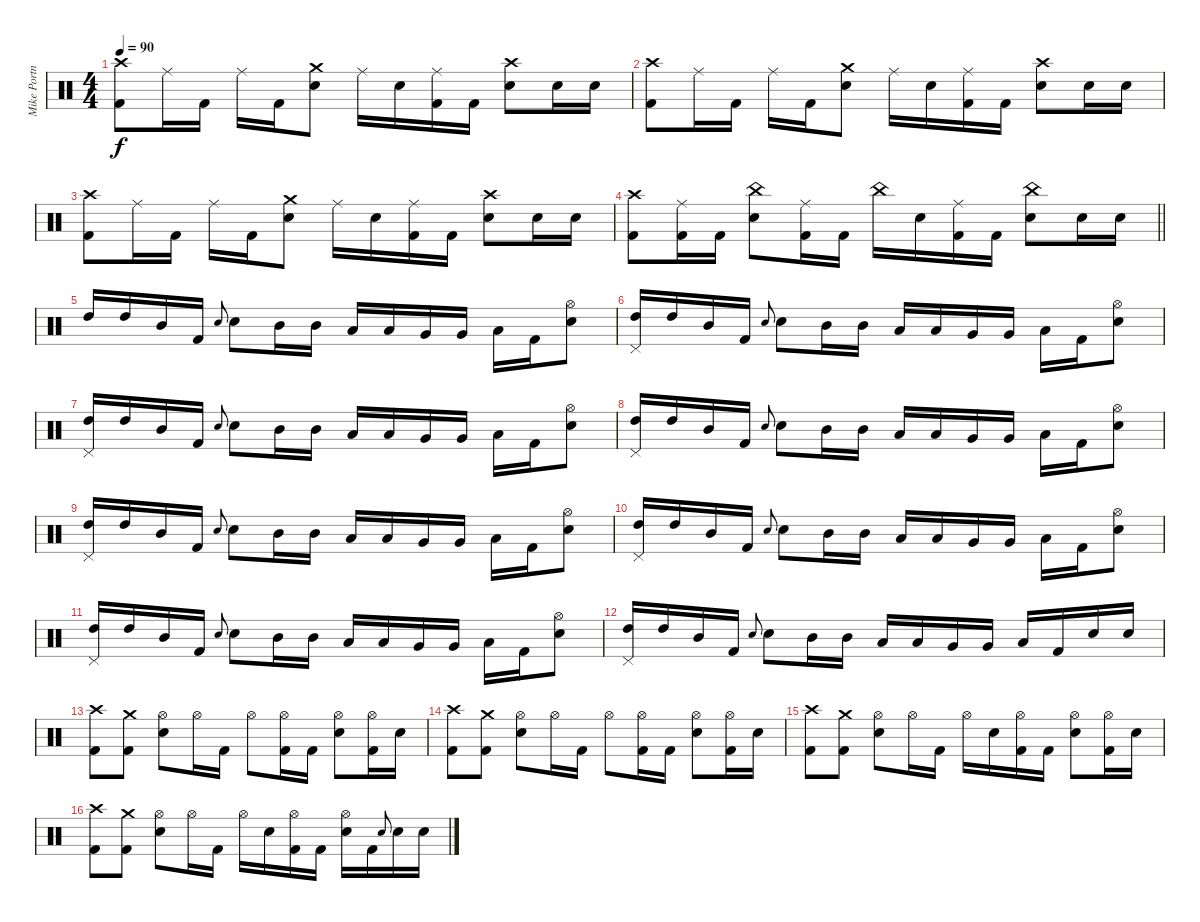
\track ("Mike Portnoy" "Mike Portn") {instrument percussion}
\staff {score}
\articulation defaults
\ts (4 4)
\tempo 90
\clef neutral
\ks c
("Crash high (hit)" "Kick (hit) 2").8{dy f} "Ride (middle)".16 "Kick (hit) 2".16 "Ride (middle)".16 "Kick (hit) 2".16 ("Crash medium (hit)" "Snare (hit) 2").8 "Ride (middle)".16 "Snare (hit) 2".16 ("Ride (middle)" "Kick (hit) 2").16 "Kick (hit) 2".16 ("Crash high (hit)" "Snare (hit) 2").8 "Snare (hit) 2".16 "Snare (hit) 2".16 |
("Crash high (hit)" "Kick (hit) 2").8 "Ride (middle)".16 "Kick (hit) 2".16 "Ride (middle)".16 "Kick (hit) 2".16 ("Crash medium (hit)" "Snare (hit) 2").8 "Ride (middle)".16 "Snare (hit) 2".16 ("Ride (middle)" "Kick (hit) 2").16 "Kick (hit) 2".16 ("Crash high (hit)" "Snare (hit) 2").8 "Snare (hit) 2".16 "Snare (hit) 2".16 |
("Crash high (hit)" "Kick (hit) 2").8 "Ride (middle)".16 "Kick (hit) 2".16 "Ride (middle)".16 "Kick (hit) 2".16 ("Crash medium (hit)" "Snare (hit) 2").8 "Ride (middle)".16 "Snare (hit) 2".16 ("Ride (middle)" "Kick (hit) 2").16 "Kick (hit) 2".16 ("Crash high (hit)" "Snare (hit) 2").8 "Snare (hit) 2".16 "Snare (hit) 2".16 |
\barLineRight lightlight
("Crash high (hit)" "Kick (hit) 2").8 ("Ride (middle)" "Kick (hit) 2").16 "Kick (hit) 2".16 ("China (hit)" "Snare (hit) 2").8 ("Ride (middle)" "Kick (hit) 2").16 "Kick (hit) 2".16 "China (hit)".16 "Snare (hit) 2".16 ("Ride (middle)" "Kick (hit) 2").16 "Kick (hit) 2".16 ("China (hit)" "Snare (hit) 2").8 "Snare (hit) 2".16 "Snare (hit) 2".16 |
"High Tom (hit)".16 "High Tom (hit)".16 "Mid Tom (hit)".16 "Kick (hit) 2".16 "Snare (hit) 2".8{gr onbeat} "Snare (hit) 2".8 "Mid Tom (hit)".16 "Mid Tom (hit)".16 "Low Tom (hit)".16 "Low Tom (hit)".16 "Very Low Tom (hit)".16 "Very Low Tom (hit)".16 "Low Floor Tom (hit)".16 "Kick (hit) 2".16 ("Hi-Hat (open)" "Snare (hit) 2").8 |
("Pedal Hi-Hat (hit)" "High Tom (hit)").16 "High Tom (hit)".16 "Mid Tom (hit)".16 "Kick (hit) 2".16 "Snare (hit) 2".8{gr onbeat} "Snare (hit) 2".8 "Mid Tom (hit)".16 "Mid Tom (hit)".16 "Low Tom (hit)".16 "Low Tom (hit)".16 "Very Low Tom (hit)".16 "Very Low Tom (hit)".16 "Low Floor Tom (hit)".16 "Kick (hit) 2".16 ("Hi-Hat (open)" "Snare (hit) 2").8 |
("Pedal Hi-Hat (hit)" "High Tom (hit)").16 "High Tom (hit)".16 "Mid Tom (hit)".16 "Kick (hit) 2".16 "Snare (hit) 2".8{gr onbeat} "Snare (hit) 2".8 "Mid Tom (hit)".16 "Mid Tom (hit)".16 "Low Tom (hit)".16 "Low Tom (hit)".16 "Very Low Tom (hit)".16 "Very Low Tom (hit)".16 "Low Floor Tom (hit)".16 "Kick (hit) 2".16 ("Hi-Hat (open)" "Snare (hit) 2").8 |
("Pedal Hi-Hat (hit)" "High Tom (hit)").16 "High Tom (hit)".16 "Mid Tom (hit)".16 "Kick (hit) 2".16 "Snare (hit) 2".8{gr onbeat} "Snare (hit) 2".8 "Mid Tom (hit)".16 "Mid Tom (hit)".16 "Low Tom (hit)".16 "Low Tom (hit)".16 "Very Low Tom (hit)".16 "Very Low Tom (hit)".16 "Low Floor Tom (hit)".16 "Kick (hit) 2".16 ("Hi-Hat (open)" "Snare (hit) 2").8 |
("Pedal Hi-Hat (hit)" "High Tom (hit)").16 "High Tom (hit)".16 "Mid Tom (hit)".16 "Kick (hit) 2".16 "Snare (hit) 2".8{gr onbeat} "Snare (hit) 2".8 "Mid Tom (hit)".16 "Mid Tom (hit)".16 "Low Tom (hit)".16 "Low Tom (hit)".16 "Very Low Tom (hit)".16 "Very Low Tom (hit)".16 "Low Floor Tom (hit)".16 "Kick (hit) 2".16 ("Hi-Hat (open)" "Snare (hit) 2").8 |
("Pedal Hi-Hat (hit)" "High Tom (hit)").16 "High Tom (hit)".16 "Mid Tom (hit)".16 "Kick (hit) 2".16 "Snare (hit) 2".8{gr onbeat} "Snare (hit) 2".8 "Mid Tom (hit)".16 "Mid Tom (hit)".16 "Low Tom (hit)".16 "Low Tom (hit)".16 "Very Low Tom (hit)".16 "Very Low Tom (hit)".16 "Low Floor Tom (hit)".16 "Kick (hit) 2".16 ("Hi-Hat (open)" "Snare (hit) 2").8 |
("Pedal Hi-Hat (hit)" "High Tom (hit)").16 "High Tom (hit)".16 "Mid Tom (hit)".16 "Kick (hit) 2".16 "Snare (hit) 2".8{gr onbeat} "Snare (hit) 2".8 "Mid Tom (hit)".16 "Mid Tom (hit)".16 "Low Tom (hit)".16 "Low Tom (hit)".16 "Very Low Tom (hit)".16 "Very Low Tom (hit)".16 "Low Floor Tom (hit)".16 "Kick (hit) 2".16 ("Hi-Hat (open)" "Snare (hit) 2").8 |
("Pedal Hi-Hat (hit)" "High Tom (hit)").16 "High Tom (hit)".16 "Mid Tom (hit)".16 "Kick (hit) 2".16 "Snare (hit) 2".8{gr onbeat} "Snare (hit) 2".8 "Mid Tom (hit)".16 "Mid Tom (hit)".16 "Low Tom (hit)".16 "Low Tom (hit)".16 "Very Low Tom (hit)".16 "Very Low Tom (hit)".16 "Low Floor Tom (hit)".16 "Kick (hit) 2".16 "Snare (hit) 2".16 "Snare (hit) 2".16 |
("Crash high (hit)" "Kick (hit) 2").8 ("Crash medium (hit)" "Kick (hit) 2").8 ("Hi-Hat (open)" "Snare (hit) 2").8 "Hi-Hat (open)".16 "Kick (hit) 2".16 "Hi-Hat (open)".8 ("Hi-Hat (open)" "Kick (hit) 2").16 "Kick (hit) 2".16 ("Hi-Hat (open)" "Snare (hit) 2").8 ("Hi-Hat (open)" "Kick (hit) 2").16 "Snare (hit) 2".16 |
("Crash high (hit)" "Kick (hit) 2").8 ("Crash medium (hit)" "Kick (hit) 2").8 ("Hi-Hat (open)" "Snare (hit) 2").8 "Hi-Hat (open)".16 "Kick (hit) 2".16 "Hi-Hat (open)".8 ("Hi-Hat (open)" "Kick (hit) 2").16 "Kick (hit) 2".16 ("Hi-Hat (open)" "Snare (hit) 2").8 ("Hi-Hat (open)" "Kick (hit) 2").16 "Snare (hit) 2".16 |
("Crash high (hit)" "Kick (hit) 2").8 ("Crash medium (hit)" "Kick (hit) 2").8 ("Hi-Hat (open)" "Snare (hit) 2").8 "Hi-Hat (open)".16 "Kick (hit) 2".16 "Hi-Hat (open)".16 "Snare (hit) 2".16 ("Hi-Hat (open)" "Kick (hit) 2").16 "Kick (hit) 2".16 ("Hi-Hat (open)" "Snare (hit) 2").8 ("Hi-Hat (open)" "Kick (hit) 2").16 "Snare (hit) 2".16 |
("Crash high (hit)" "Kick (hit) 2").8 ("Crash medium (hit)" "Kick (hit) 2").8 ("Hi-Hat (open)" "Snare (hit) 2").8 "Hi-Hat (open)".16 "Kick (hit) 2".16 "Hi-Hat (open)".16 "Snare (hit) 2".16 ("Hi-Hat (open)" "Kick (hit) 2").16 "Kick (hit) 2".16 ("Hi-Hat (open)" "Snare (hit) 2").16 "Kick (hit) 2".16 "Snare (hit) 2".8{gr onbeat} "Snare (hit) 2".16 "Snare (hit) 2".16
